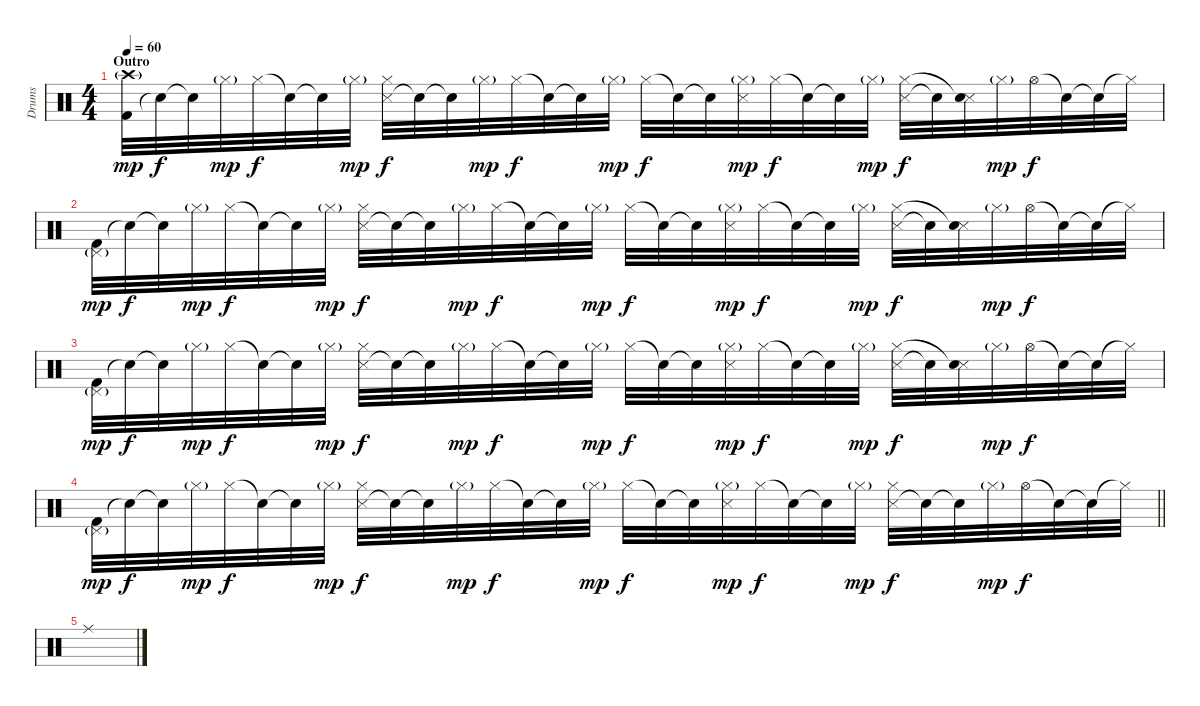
\track ("Drums" "Drums") {instrument percussion}
\staff {score}
\articulation defaults
\ts (4 4)
\section ("" "Outro")
\tempo 60
\clef neutral
\ks c
("Kick (hit) 2" "Crash high (hit)"{g}).32{dy mp} "Snare (hit)"{t}.32{dy f} "Snare (hit)"{t}.32 "Hi-Hat (closed)"{g}.32{dy mp} "Hi-Hat (closed)".32{dy f} "Snare (hit)"{t}.32 "Snare (hit)"{t}.32 "Hi-Hat (closed)"{g}.32{dy mp} ("Snare (side stick) 3" "Hi-Hat (closed)").32{dy f} "Snare (hit)"{t}.32 "Snare (hit)"{t}.32 "Hi-Hat (closed)"{g}.32{dy mp} "Hi-Hat (closed)".32{dy f} "Snare (hit)"{t}.32 "Snare (hit)"{t}.32 "Hi-Hat (closed)"{g}.32{dy mp} "Hi-Hat (closed)".32{dy f} "Snare (hit)"{t}.32 "Snare (hit)"{t}.32 ("Snare (side stick) 3" "Hi-Hat (closed)"{g}).32{dy mp} "Hi-Hat (closed)".32{dy f} "Snare (hit)"{t}.32 "Snare (hit)"{t}.32 "Hi-Hat (closed)"{g}.32{dy mp} ("Snare (side stick) 3" "Hi-Hat (closed)").32{dy f} "Snare (hit)"{t}.32 ("Snare (side stick) 3" "Snare (hit)"{t}).32 "Hi-Hat (closed)"{g}.32{dy mp} "Hi-Hat (open)".32{dy f} "Snare (hit)"{t}.32 "Snare (hit)"{t}.32 "Hi-Hat (closed)"{t}.32 |
("Kick (hit) 2" "Pedal Hi-Hat (hit)"{g}).32{dy mp} "Snare (hit)"{t}.32{dy f} "Snare (hit)"{t}.32 "Hi-Hat (closed)"{g}.32{dy mp} "Hi-Hat (closed)".32{dy f} "Snare (hit)"{t}.32 "Snare (hit)"{t}.32 "Hi-Hat (closed)"{g}.32{dy mp} ("Snare (side stick) 3" "Hi-Hat (closed)").32{dy f} "Snare (hit)"{t}.32 "Snare (hit)"{t}.32 "Hi-Hat (closed)"{g}.32{dy mp} "Hi-Hat (closed)".32{dy f} "Snare (hit)"{t}.32 "Snare (hit)"{t}.32 "Hi-Hat (closed)"{g}.32{dy mp} "Hi-Hat (closed)".32{dy f} "Snare (hit)"{t}.32 "Snare (hit)"{t}.32 ("Snare (side stick) 3" "Hi-Hat (closed)"{g}).32{dy mp} "Hi-Hat (closed)".32{dy f} "Snare (hit)"{t}.32 "Snare (hit)"{t}.32 "Hi-Hat (closed)"{g}.32{dy mp} ("Snare (side stick) 3" "Hi-Hat (closed)").32{dy f} "Snare (hit)"{t}.32 ("Snare (side stick) 3" "Snare (hit)"{t}).32 "Hi-Hat (closed)"{g}.32{dy mp} "Hi-Hat (open)".32{dy f} "Snare (hit)"{t}.32 "Snare (hit)"{t}.32 "Hi-Hat (closed)"{t}.32 |
("Kick (hit) 2" "Pedal Hi-Hat (hit)"{g}).32{dy mp} "Snare (hit)"{t}.32{dy f} "Snare (hit)"{t}.32 "Hi-Hat (closed)"{g}.32{dy mp} "Hi-Hat (closed)".32{dy f} "Snare (hit)"{t}.32 "Snare (hit)"{t}.32 "Hi-Hat (closed)"{g}.32{dy mp} ("Snare (side stick) 3" "Hi-Hat (closed)").32{dy f} "Snare (hit)"{t}.32 "Snare (hit)"{t}.32 "Hi-Hat (closed)"{g}.32{dy mp} "Hi-Hat (closed)".32{dy f} "Snare (hit)"{t}.32 "Snare (hit)"{t}.32 "Hi-Hat (closed)"{g}.32{dy mp} "Hi-Hat (closed)".32{dy f} "Snare (hit)"{t}.32 "Snare (hit)"{t}.32 ("Snare (side stick) 3" "Hi-Hat (closed)"{g}).32{dy mp} "Hi-Hat (closed)".32{dy f} "Snare (hit)"{t}.32 "Snare (hit)"{t}.32 "Hi-Hat (closed)"{g}.32{dy mp} ("Snare (side stick) 3" "Hi-Hat (closed)").32{dy f} "Snare (hit)"{t}.32 ("Snare (side stick) 3" "Snare (hit)"{t}).32 "Hi-Hat (closed)"{g}.32{dy mp} "Hi-Hat (open)".32{dy f} "Snare (hit)"{t}.32 "Snare (hit)"{t}.32 "Hi-Hat (closed)"{t}.32 |
\barLineRight lightlight
("Kick (hit) 2" "Pedal Hi-Hat (hit)"{g}).32{dy mp} "Snare (hit)"{t}.32{dy f} "Snare (hit)"{t}.32 "Hi-Hat (closed)"{g}.32{dy mp} "Hi-Hat (closed)".32{dy f} "Snare (hit)"{t}.32 "Snare (hit)"{t}.32 "Hi-Hat (closed)"{g}.32{dy mp} ("Snare (side stick) 3" "Hi-Hat (closed)").32{dy f} "Snare (hit)"{t}.32 "Snare (hit)"{t}.32 "Hi-Hat (closed)"{g}.32{dy mp} "Hi-Hat (closed)".32{dy f} "Snare (hit)"{t}.32 "Snare (hit)"{t}.32 "Hi-Hat (closed)"{g}.32{dy mp} "Hi-Hat (closed)".32{dy f} "Snare (hit)"{t}.32 "Snare (hit)"{t}.32 ("Snare (side stick) 3" "Hi-Hat (closed)"{g}).32{dy mp} "Hi-Hat (closed)".32{dy f} "Snare (hit)"{t}.32 "Snare (hit)"{t}.32 "Hi-Hat (closed)"{g}.32{dy mp} ("Snare (side stick) 3" "Hi-Hat (closed)").32{dy f} "Snare (hit)"{t}.32 "Snare (hit)"{t}.32 "Hi-Hat (closed)"{g}.32{dy mp} "Hi-Hat (open)".32{dy f} "Snare (hit)"{t}.32 "Snare (hit)"{t}.32 "Hi-Hat (closed)"{t}.32 |
"Ride (middle)".1
